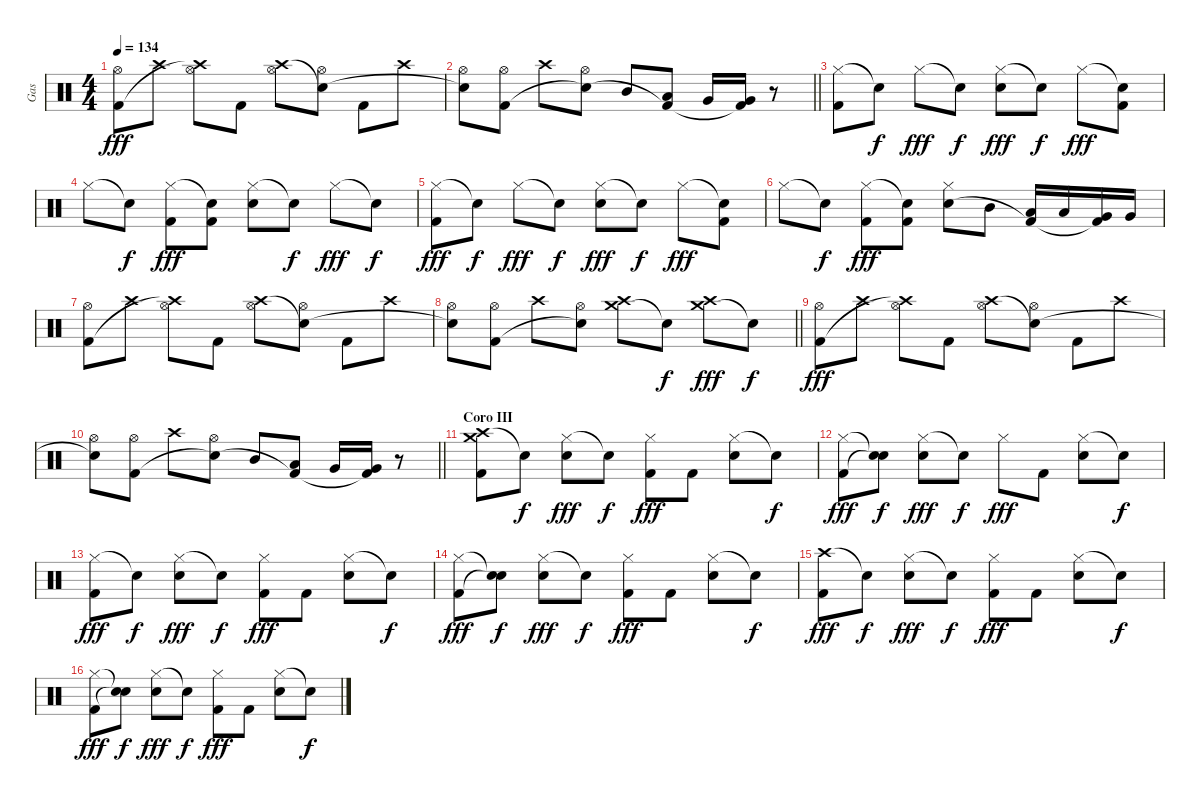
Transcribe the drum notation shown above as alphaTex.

\track ("Gas" "Gas") {instrument percussion}
\staff {score}
\articulation defaults
\ts (4 4)
\tempo 134
\clef neutral
\ks c
("Hi-Hat (open)" "Kick (hit) 2").8{dy fff} "Crash high (hit)".8 ("Hi-Hat (open)" "Crash high (hit)"{t}).8 "Kick (hit) 2".8 ("Hi-Hat (open)" "Crash high (hit)").8 ("Hi-Hat (open)" "Snare (hit)"{t}).8 "Kick (hit) 2".8 "Crash high (hit)".8 |
\barLineRight lightlight
("Hi-Hat (open)" "Snare (hit)"{t}).8 ("Hi-Hat (open)" "Kick (hit) 2").8 "Crash high (hit)".8 ("Hi-Hat (open)" "Snare (hit)"{t}).8 "Mid Tom (hit)".8 ("Low Tom (hit)" "Kick (hit) 2"{t}).8 "Very Low Tom (hit)".16 ("Very Low Tom (hit)" "Kick (hit) 2"{t}).16 r.8 |
("Hi-Hat (closed)" "Kick (hit) 2").8 "Snare (hit)"{t}.8{dy f} "Hi-Hat (closed)".8{dy fff} "Snare (hit)"{t}.8{dy f} ("Hi-Hat (closed)" "Snare (hit) 2").8{dy fff} "Snare (hit)"{t}.8{dy f} "Hi-Hat (closed)".8{dy fff} ("Snare (hit)"{t} "Kick (hit) 2").8 |
"Hi-Hat (closed)".8 "Snare (hit)"{t}.8{dy f} ("Hi-Hat (closed)" "Kick (hit) 2").8{dy fff} ("Snare (hit)"{t} "Kick (hit) 2").8 ("Hi-Hat (closed)" "Snare (hit) 2").8 "Snare (hit)"{t}.8{dy f} "Hi-Hat (closed)".8{dy fff} "Snare (hit)"{t}.8{dy f} |
("Hi-Hat (closed)" "Kick (hit) 2").8{dy fff} "Snare (hit)"{t}.8{dy f} "Hi-Hat (closed)".8{dy fff} "Snare (hit)"{t}.8{dy f} ("Hi-Hat (closed)" "Snare (hit) 2").8{dy fff} "Snare (hit)"{t}.8{dy f} "Hi-Hat (closed)".8{dy fff} ("Snare (hit)"{t} "Kick (hit) 2").8 |
"Hi-Hat (closed)".8 "Snare (hit)"{t}.8{dy f} ("Hi-Hat (closed)" "Kick (hit) 2").8{dy fff} ("Snare (hit)"{t} "Kick (hit) 2").8 ("Hi-Hat (closed)" "Snare (hit) 2").8 "Mid Tom (hit)".8 ("Low Tom (hit)" "Kick (hit) 2"{t}).16 "Low Tom (hit)".16 ("Very Low Tom (hit)" "Kick (hit) 2"{t}).16 "Very Low Tom (hit)".16 |
("Hi-Hat (open)" "Kick (hit) 2").8 "Crash high (hit)".8 ("Hi-Hat (open)" "Crash high (hit)"{t}).8 "Kick (hit) 2".8 ("Hi-Hat (open)" "Crash high (hit)").8 ("Hi-Hat (open)" "Snare (hit)"{t}).8 "Kick (hit) 2".8 "Crash high (hit)".8 |
\barLineRight lightlight
("Hi-Hat (open)" "Snare (hit)"{t}).8 ("Hi-Hat (open)" "Kick (hit) 2").8 "Crash high (hit)".8 ("Hi-Hat (open)" "Snare (hit)"{t}).8 ("Crash medium (hit)" "Crash high (hit)").8 "Snare (hit)"{t}.8{dy f} ("Crash medium (hit)" "Crash high (hit)").8{dy fff} "Snare (hit)"{t}.8{dy f} |
("Hi-Hat (open)" "Kick (hit) 2").8{dy fff} "Crash high (hit)".8 ("Hi-Hat (open)" "Crash high (hit)"{t}).8 "Kick (hit) 2".8 ("Hi-Hat (open)" "Crash high (hit)").8 ("Hi-Hat (open)" "Snare (hit)"{t}).8 "Kick (hit) 2".8 "Crash high (hit)".8 |
\barLineRight lightlight
("Hi-Hat (open)" "Snare (hit)"{t}).8 ("Hi-Hat (open)" "Kick (hit) 2").8 "Crash high (hit)".8 ("Hi-Hat (open)" "Snare (hit)"{t}).8 "Mid Tom (hit)".8 ("Low Tom (hit)" "Kick (hit) 2"{t}).8 "Very Low Tom (hit)".16 ("Very Low Tom (hit)" "Kick (hit) 2"{t}).16 r.8 |
\section ("" "Coro III")
("Crash high (hit)" "Crash medium (hit)" "Kick (hit) 2").8 "Snare (hit)"{t}.8{dy f} ("Hi-Hat (closed)" "Snare (hit) 2").8{dy fff} "Snare (hit)"{t}.8{dy f} ("Hi-Hat (closed)" "Kick (hit) 2").8{dy fff} "Kick (hit) 2".8 ("Hi-Hat (closed)" "Snare (hit) 2").8 "Snare (hit)"{t}.8{dy f} |
("Hi-Hat (closed)" "Kick (hit) 2").8{dy fff} ("Snare (hit)"{t} "Snare (hit)"{t}).8{dy f} ("Hi-Hat (closed)" "Snare (hit) 2").8{dy fff} "Snare (hit)"{t}.8{dy f} "Hi-Hat (closed)".8{dy fff} "Kick (hit) 2".8 ("Hi-Hat (closed)" "Snare (hit) 2").8 "Snare (hit)"{t}.8{dy f} |
("Hi-Hat (closed)" "Kick (hit) 2").8{dy fff} "Snare (hit)"{t}.8{dy f} ("Hi-Hat (closed)" "Snare (hit) 2").8{dy fff} "Snare (hit)"{t}.8{dy f} ("Hi-Hat (closed)" "Kick (hit) 2").8{dy fff} "Kick (hit) 2".8 ("Hi-Hat (closed)" "Snare (hit) 2").8 "Snare (hit)"{t}.8{dy f} |
("Hi-Hat (closed)" "Kick (hit) 2").8{dy fff} ("Snare (hit)"{t} "Snare (hit)"{t}).8{dy f} ("Hi-Hat (closed)" "Snare (hit) 2").8{dy fff} "Snare (hit)"{t}.8{dy f} ("Hi-Hat (closed)" "Kick (hit) 2").8{dy fff} "Kick (hit) 2".8 ("Hi-Hat (closed)" "Snare (hit) 2").8 "Snare (hit)"{t}.8{dy f} |
("Crash high (hit)" "Kick (hit) 2").8{dy fff} "Snare (hit)"{t}.8{dy f} ("Hi-Hat (closed)" "Snare (hit) 2").8{dy fff} "Snare (hit)"{t}.8{dy f} ("Hi-Hat (closed)" "Kick (hit) 2").8{dy fff} "Kick (hit) 2".8 ("Hi-Hat (closed)" "Snare (hit) 2").8 "Snare (hit)"{t}.8{dy f} |
("Hi-Hat (closed)" "Kick (hit) 2").8{dy fff} ("Snare (hit)"{t} "Snare (hit)"{t}).8{dy f} ("Hi-Hat (closed)" "Snare (hit) 2").8{dy fff} "Snare (hit)"{t}.8{dy f} ("Hi-Hat (closed)" "Kick (hit) 2").8{dy fff} "Kick (hit) 2".8 ("Hi-Hat (closed)" "Snare (hit) 2").8 "Snare (hit)"{t}.8{dy f}
